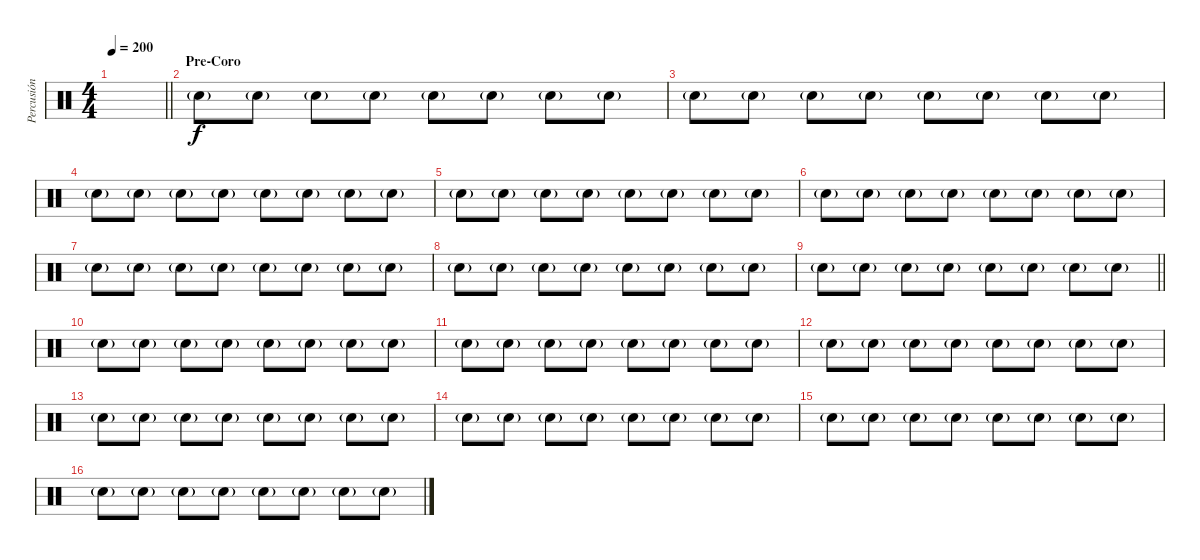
\track ("Percusión" "Percusión") {instrument percussion}
\staff {score}
\articulation defaults
\ts (4 4)
\tempo 200
\clef neutral
\barLineRight lightlight
\ks c
|
\section ("" "Pre-Coro")
"Hand Clap (hit)"{g}.8 "Hand Clap (hit)"{g}.8 "Hand Clap (hit)"{g}.8 "Hand Clap (hit)"{g}.8 "Hand Clap (hit)"{g}.8 "Hand Clap (hit)"{g}.8 "Hand Clap (hit)"{g}.8 "Hand Clap (hit)"{g}.8 |
"Hand Clap (hit)"{g}.8 "Hand Clap (hit)"{g}.8 "Hand Clap (hit)"{g}.8 "Hand Clap (hit)"{g}.8 "Hand Clap (hit)"{g}.8 "Hand Clap (hit)"{g}.8 "Hand Clap (hit)"{g}.8 "Hand Clap (hit)"{g}.8 |
"Hand Clap (hit)"{g}.8 "Hand Clap (hit)"{g}.8 "Hand Clap (hit)"{g}.8 "Hand Clap (hit)"{g}.8 "Hand Clap (hit)"{g}.8 "Hand Clap (hit)"{g}.8 "Hand Clap (hit)"{g}.8 "Hand Clap (hit)"{g}.8 |
"Hand Clap (hit)"{g}.8 "Hand Clap (hit)"{g}.8 "Hand Clap (hit)"{g}.8 "Hand Clap (hit)"{g}.8 "Hand Clap (hit)"{g}.8 "Hand Clap (hit)"{g}.8 "Hand Clap (hit)"{g}.8 "Hand Clap (hit)"{g}.8 |
"Hand Clap (hit)"{g}.8 "Hand Clap (hit)"{g}.8 "Hand Clap (hit)"{g}.8 "Hand Clap (hit)"{g}.8 "Hand Clap (hit)"{g}.8 "Hand Clap (hit)"{g}.8 "Hand Clap (hit)"{g}.8 "Hand Clap (hit)"{g}.8 |
"Hand Clap (hit)"{g}.8 "Hand Clap (hit)"{g}.8 "Hand Clap (hit)"{g}.8 "Hand Clap (hit)"{g}.8 "Hand Clap (hit)"{g}.8 "Hand Clap (hit)"{g}.8 "Hand Clap (hit)"{g}.8 "Hand Clap (hit)"{g}.8 |
"Hand Clap (hit)"{g}.8 "Hand Clap (hit)"{g}.8 "Hand Clap (hit)"{g}.8 "Hand Clap (hit)"{g}.8 "Hand Clap (hit)"{g}.8 "Hand Clap (hit)"{g}.8 "Hand Clap (hit)"{g}.8 "Hand Clap (hit)"{g}.8 |
\barLineRight lightlight "Hand Clap (hit)"{g}.8 "Hand Clap (hit)"{g}.8 "Hand Clap (hit)"{g}.8 "Hand Clap (hit)"{g}.8 "Hand Clap (hit)"{g}.8 "Hand Clap (hit)"{g}.8 "Hand Clap (hit)"{g}.8 "Hand Clap (hit)"{g}.8
|
\section ("" "")
"Hand Clap (hit)"{g}.8 "Hand Clap (hit)"{g}.8 "Hand Clap (hit)"{g}.8 "Hand Clap (hit)"{g}.8 "Hand Clap (hit)"{g}.8 "Hand Clap (hit)"{g}.8 "Hand Clap (hit)"{g}.8 "Hand Clap (hit)"{g}.8 |
"Hand Clap (hit)"{g}.8 "Hand Clap (hit)"{g}.8 "Hand Clap (hit)"{g}.8 "Hand Clap (hit)"{g}.8 "Hand Clap (hit)"{g}.8 "Hand Clap (hit)"{g}.8 "Hand Clap (hit)"{g}.8 "Hand Clap (hit)"{g}.8 |
"Hand Clap (hit)"{g}.8 "Hand Clap (hit)"{g}.8 "Hand Clap (hit)"{g}.8 "Hand Clap (hit)"{g}.8 "Hand Clap (hit)"{g}.8 "Hand Clap (hit)"{g}.8 "Hand Clap (hit)"{g}.8 "Hand Clap (hit)"{g}.8 |
"Hand Clap (hit)"{g}.8 "Hand Clap (hit)"{g}.8 "Hand Clap (hit)"{g}.8 "Hand Clap (hit)"{g}.8 "Hand Clap (hit)"{g}.8 "Hand Clap (hit)"{g}.8 "Hand Clap (hit)"{g}.8 "Hand Clap (hit)"{g}.8 |
"Hand Clap (hit)"{g}.8 "Hand Clap (hit)"{g}.8 "Hand Clap (hit)"{g}.8 "Hand Clap (hit)"{g}.8 "Hand Clap (hit)"{g}.8 "Hand Clap (hit)"{g}.8 "Hand Clap (hit)"{g}.8 "Hand Clap (hit)"{g}.8 |
"Hand Clap (hit)"{g}.8 "Hand Clap (hit)"{g}.8 "Hand Clap (hit)"{g}.8 "Hand Clap (hit)"{g}.8 "Hand Clap (hit)"{g}.8 "Hand Clap (hit)"{g}.8 "Hand Clap (hit)"{g}.8 "Hand Clap (hit)"{g}.8 |
"Hand Clap (hit)"{g}.8 "Hand Clap (hit)"{g}.8 "Hand Clap (hit)"{g}.8 "Hand Clap (hit)"{g}.8 "Hand Clap (hit)"{g}.8 "Hand Clap (hit)"{g}.8 "Hand Clap (hit)"{g}.8 "Hand Clap (hit)"{g}.8
